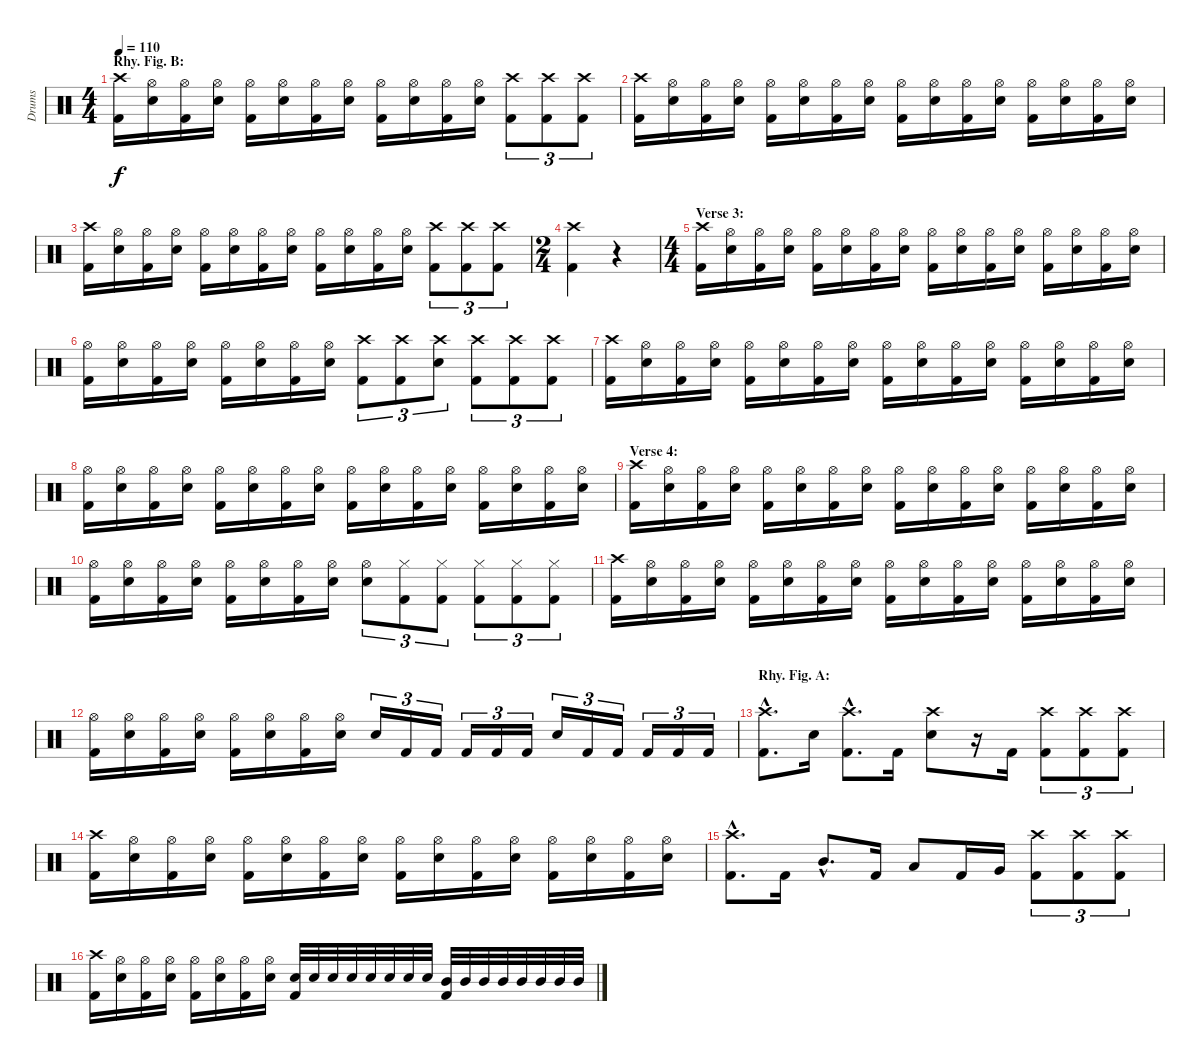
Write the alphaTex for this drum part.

\track ("Drums" "Drums") {instrument percussion}
\staff {score}
\articulation defaults
\ts (4 4)
\section ("" "Rhy. Fig. B:")
\tempo 110
\clef neutral
\ks c
("Crash high (hit)" "Kick (hit) 2").16{dy f} ("Hi-Hat (open)" "Electric Snare (hit)").16 ("Hi-Hat (open)" "Kick (hit) 2").16 ("Hi-Hat (open)" "Electric Snare (hit)").16 ("Hi-Hat (open)" "Kick (hit) 2").16 ("Hi-Hat (open)" "Electric Snare (hit)").16 ("Hi-Hat (open)" "Kick (hit) 2").16 ("Hi-Hat (open)" "Electric Snare (hit)").16 ("Hi-Hat (open)" "Kick (hit) 2").16 ("Hi-Hat (open)" "Electric Snare (hit)").16 ("Hi-Hat (open)" "Kick (hit) 2").16 ("Hi-Hat (open)" "Electric Snare (hit)").16 ("Crash high (hit)" "Kick (hit) 2").8{tu (3 2)} ("Crash high (hit)" "Kick (hit) 2").8{tu (3 2)} ("Crash high (hit)" "Kick (hit) 2").8{tu (3 2)} |
("Crash high (hit)" "Kick (hit) 2").16 ("Hi-Hat (open)" "Electric Snare (hit)").16 ("Hi-Hat (open)" "Kick (hit) 2").16 ("Hi-Hat (open)" "Electric Snare (hit)").16 ("Hi-Hat (open)" "Kick (hit) 2").16 ("Hi-Hat (open)" "Electric Snare (hit)").16 ("Hi-Hat (open)" "Kick (hit) 2").16 ("Hi-Hat (open)" "Electric Snare (hit)").16 ("Hi-Hat (open)" "Kick (hit) 2").16 ("Hi-Hat (open)" "Electric Snare (hit)").16 ("Hi-Hat (open)" "Kick (hit) 2").16 ("Hi-Hat (open)" "Electric Snare (hit)").16 ("Hi-Hat (open)" "Kick (hit) 2").16 ("Hi-Hat (open)" "Electric Snare (hit)").16 ("Hi-Hat (open)" "Kick (hit) 2").16 ("Hi-Hat (open)" "Electric Snare (hit)").16 |
("Crash high (hit)" "Kick (hit) 2").16 ("Hi-Hat (open)" "Electric Snare (hit)").16 ("Hi-Hat (open)" "Kick (hit) 2").16 ("Hi-Hat (open)" "Electric Snare (hit)").16 ("Hi-Hat (open)" "Kick (hit) 2").16 ("Hi-Hat (open)" "Electric Snare (hit)").16 ("Hi-Hat (open)" "Kick (hit) 2").16 ("Hi-Hat (open)" "Electric Snare (hit)").16 ("Hi-Hat (open)" "Kick (hit) 2").16 ("Hi-Hat (open)" "Electric Snare (hit)").16 ("Hi-Hat (open)" "Kick (hit) 2").16 ("Hi-Hat (open)" "Electric Snare (hit)").16 ("Crash high (hit)" "Kick (hit) 2").8{tu (3 2)} ("Crash high (hit)" "Kick (hit) 2").8{tu (3 2)} ("Crash high (hit)" "Kick (hit) 2").8{tu (3 2)} |
\ts (2 4)
("Crash high (hit)" "Kick (hit) 2").4 r.4 |
\ts (4 4)
\section ("" "Verse 3:")
("Crash high (hit)" "Kick (hit) 2").16 ("Hi-Hat (open)" "Electric Snare (hit)").16 ("Hi-Hat (open)" "Kick (hit) 2").16 ("Hi-Hat (open)" "Electric Snare (hit)").16 ("Hi-Hat (open)" "Kick (hit) 2").16 ("Hi-Hat (open)" "Electric Snare (hit)").16 ("Hi-Hat (open)" "Kick (hit) 2").16 ("Hi-Hat (open)" "Electric Snare (hit)").16 ("Hi-Hat (open)" "Kick (hit) 2").16 ("Hi-Hat (open)" "Electric Snare (hit)").16 ("Hi-Hat (open)" "Kick (hit) 2").16 ("Hi-Hat (open)" "Electric Snare (hit)").16 ("Hi-Hat (open)" "Kick (hit) 2").16 ("Hi-Hat (open)" "Electric Snare (hit)").16 ("Hi-Hat (open)" "Kick (hit) 2").16 ("Hi-Hat (open)" "Electric Snare (hit)").16 |
("Hi-Hat (open)" "Kick (hit) 2").16 ("Hi-Hat (open)" "Electric Snare (hit)").16 ("Hi-Hat (open)" "Kick (hit) 2").16 ("Hi-Hat (open)" "Electric Snare (hit)").16 ("Hi-Hat (open)" "Kick (hit) 2").16 ("Hi-Hat (open)" "Electric Snare (hit)").16 ("Hi-Hat (open)" "Kick (hit) 2").16 ("Hi-Hat (open)" "Electric Snare (hit)").16 ("Crash high (hit)" "Kick (hit) 2").8{tu (3 2)} ("Crash high (hit)" "Kick (hit) 2").8{tu (3 2)} ("Crash high (hit)" "Electric Snare (hit)").8{tu (3 2)} ("Crash high (hit)" "Kick (hit) 2").8{tu (3 2)} ("Crash high (hit)" "Kick (hit) 2").8{tu (3 2)} ("Crash high (hit)" "Kick (hit) 2").8{tu (3 2)} |
("Crash high (hit)" "Kick (hit) 2").16 ("Hi-Hat (open)" "Electric Snare (hit)").16 ("Hi-Hat (open)" "Kick (hit) 2").16 ("Hi-Hat (open)" "Electric Snare (hit)").16 ("Hi-Hat (open)" "Kick (hit) 2").16 ("Hi-Hat (open)" "Electric Snare (hit)").16 ("Hi-Hat (open)" "Kick (hit) 2").16 ("Hi-Hat (open)" "Electric Snare (hit)").16 ("Hi-Hat (open)" "Kick (hit) 2").16 ("Hi-Hat (open)" "Electric Snare (hit)").16 ("Hi-Hat (open)" "Kick (hit) 2").16 ("Hi-Hat (open)" "Electric Snare (hit)").16 ("Hi-Hat (open)" "Kick (hit) 2").16 ("Hi-Hat (open)" "Electric Snare (hit)").16 ("Hi-Hat (open)" "Kick (hit) 2").16 ("Hi-Hat (open)" "Electric Snare (hit)").16 |
("Hi-Hat (open)" "Kick (hit) 2").16 ("Hi-Hat (open)" "Electric Snare (hit)").16 ("Hi-Hat (open)" "Kick (hit) 2").16 ("Hi-Hat (open)" "Electric Snare (hit)").16 ("Hi-Hat (open)" "Kick (hit) 2").16 ("Hi-Hat (open)" "Electric Snare (hit)").16 ("Hi-Hat (open)" "Kick (hit) 2").16 ("Hi-Hat (open)" "Electric Snare (hit)").16 ("Hi-Hat (open)" "Kick (hit) 2").16 ("Hi-Hat (open)" "Electric Snare (hit)").16 ("Hi-Hat (open)" "Kick (hit) 2").16 ("Hi-Hat (open)" "Electric Snare (hit)").16 ("Hi-Hat (open)" "Kick (hit) 2").16 ("Hi-Hat (open)" "Electric Snare (hit)").16 ("Hi-Hat (open)" "Kick (hit) 2").16 ("Hi-Hat (open)" "Electric Snare (hit)").16 |
\section ("" "Verse 4:")
("Crash high (hit)" "Kick (hit) 2").16 ("Hi-Hat (open)" "Electric Snare (hit)").16 ("Hi-Hat (open)" "Kick (hit) 2").16 ("Hi-Hat (open)" "Electric Snare (hit)").16 ("Hi-Hat (open)" "Kick (hit) 2").16 ("Hi-Hat (open)" "Electric Snare (hit)").16 ("Hi-Hat (open)" "Kick (hit) 2").16 ("Hi-Hat (open)" "Electric Snare (hit)").16 ("Hi-Hat (open)" "Kick (hit) 2").16 ("Hi-Hat (open)" "Electric Snare (hit)").16 ("Hi-Hat (open)" "Kick (hit) 2").16 ("Hi-Hat (open)" "Electric Snare (hit)").16 ("Hi-Hat (open)" "Kick (hit) 2").16 ("Hi-Hat (open)" "Electric Snare (hit)").16 ("Hi-Hat (open)" "Kick (hit) 2").16 ("Hi-Hat (open)" "Electric Snare (hit)").16 |
("Hi-Hat (open)" "Kick (hit) 2").16 ("Hi-Hat (open)" "Electric Snare (hit)").16 ("Hi-Hat (open)" "Kick (hit) 2").16 ("Hi-Hat (open)" "Electric Snare (hit)").16 ("Hi-Hat (open)" "Kick (hit) 2").16 ("Hi-Hat (open)" "Electric Snare (hit)").16 ("Hi-Hat (open)" "Kick (hit) 2").16 ("Hi-Hat (open)" "Electric Snare (hit)").16 ("Hi-Hat (open)" "Electric Snare (hit)").8{tu (3 2)} ("Hi-Hat (closed)" "Kick (hit) 2").8{tu (3 2)} ("Hi-Hat (closed)" "Kick (hit) 2").8{tu (3 2)} ("Hi-Hat (closed)" "Kick (hit) 2").8{tu (3 2)} ("Hi-Hat (closed)" "Kick (hit) 2").8{tu (3 2)} ("Hi-Hat (closed)" "Kick (hit) 2").8{tu (3 2)} |
("Crash high (hit)" "Kick (hit) 2").16 ("Hi-Hat (open)" "Electric Snare (hit)").16 ("Hi-Hat (open)" "Kick (hit) 2").16 ("Hi-Hat (open)" "Electric Snare (hit)").16 ("Hi-Hat (open)" "Kick (hit) 2").16 ("Hi-Hat (open)" "Electric Snare (hit)").16 ("Hi-Hat (open)" "Kick (hit) 2").16 ("Hi-Hat (open)" "Electric Snare (hit)").16 ("Hi-Hat (open)" "Kick (hit) 2").16 ("Hi-Hat (open)" "Electric Snare (hit)").16 ("Hi-Hat (open)" "Kick (hit) 2").16 ("Hi-Hat (open)" "Electric Snare (hit)").16 ("Hi-Hat (open)" "Kick (hit) 2").16 ("Hi-Hat (open)" "Electric Snare (hit)").16 ("Hi-Hat (open)" "Kick (hit) 2").16 ("Hi-Hat (open)" "Electric Snare (hit)").16 |
("Hi-Hat (open)" "Kick (hit) 2").16 ("Hi-Hat (open)" "Electric Snare (hit)").16 ("Hi-Hat (open)" "Kick (hit) 2").16 ("Hi-Hat (open)" "Electric Snare (hit)").16 ("Hi-Hat (open)" "Kick (hit) 2").16 ("Hi-Hat (open)" "Electric Snare (hit)").16 ("Hi-Hat (open)" "Kick (hit) 2").16 ("Hi-Hat (open)" "Electric Snare (hit)").16 "Electric Snare (hit)".16{tu (3 2)} "Kick (hit) 2".16{tu (3 2)} "Kick (hit) 2".16{tu (3 2)} "Kick (hit) 2".16{tu (3 2)} "Kick (hit) 2".16{tu (3 2)} "Kick (hit) 2".16{tu (3 2)} "Electric Snare (hit)".16{tu (3 2)} "Kick (hit) 2".16{tu (3 2)} "Kick (hit) 2".16{tu (3 2)} "Kick (hit) 2".16{tu (3 2)} "Kick (hit) 2".16{tu (3 2)} "Kick (hit) 2".16{tu (3 2)} |
\section ("" "Rhy. Fig. A:")
("Crash high (hit)"{hac} "Kick (hit) 2"{hac}).8{d} "Electric Snare (hit)".16 ("Crash high (hit)"{hac} "Kick (hit) 2"{hac}).8{d} "Kick (hit) 2".16 ("Crash high (hit)" "Electric Snare (hit)").8 r.16 "Kick (hit) 2".16 ("Crash high (hit)" "Kick (hit) 2").8{tu (3 2)} ("Crash high (hit)" "Kick (hit) 2").8{tu (3 2)} ("Crash high (hit)" "Kick (hit) 2").8{tu (3 2)} |
("Crash high (hit)" "Kick (hit) 2").16 ("Hi-Hat (open)" "Electric Snare (hit)").16 ("Hi-Hat (open)" "Kick (hit) 2").16 ("Hi-Hat (open)" "Electric Snare (hit)").16 ("Hi-Hat (open)" "Kick (hit) 2").16 ("Hi-Hat (open)" "Electric Snare (hit)").16 ("Hi-Hat (open)" "Kick (hit) 2").16 ("Hi-Hat (open)" "Electric Snare (hit)").16 ("Hi-Hat (open)" "Kick (hit) 2").16 ("Hi-Hat (open)" "Electric Snare (hit)").16 ("Hi-Hat (open)" "Kick (hit) 2").16 ("Hi-Hat (open)" "Electric Snare (hit)").16 ("Hi-Hat (open)" "Kick (hit) 2").16 ("Hi-Hat (open)" "Electric Snare (hit)").16 ("Hi-Hat (open)" "Kick (hit) 2").16 ("Hi-Hat (open)" "Electric Snare (hit)").16 |
("Crash high (hit)"{hac} "Kick (hit) 2"{hac}).8{d} "Kick (hit) 2".16 "Mid Tom (hit)"{hac}.8{d} "Kick (hit) 2".16 "Low Tom (hit)".8 "Kick (hit) 2".16 "Very Low Tom (hit)".16 ("Crash high (hit)" "Kick (hit) 2").8{tu (3 2)} ("Crash high (hit)" "Kick (hit) 2").8{tu (3 2)} ("Crash high (hit)" "Kick (hit) 2").8{tu (3 2)} |
("Crash high (hit)" "Kick (hit) 2").16 ("Hi-Hat (open)" "Electric Snare (hit)").16 ("Hi-Hat (open)" "Kick (hit) 2").16 ("Hi-Hat (open)" "Electric Snare (hit)").16 ("Hi-Hat (open)" "Kick (hit) 2").16 ("Hi-Hat (open)" "Electric Snare (hit)").16 ("Hi-Hat (open)" "Kick (hit) 2").16 ("Hi-Hat (open)" "Electric Snare (hit)").16 ("Electric Snare (hit)" "Kick (hit) 2").32 "Electric Snare (hit)".32 "Electric Snare (hit)".32 "Electric Snare (hit)".32 "Electric Snare (hit)".32 "Electric Snare (hit)".32 "Electric Snare (hit)".32 "Electric Snare (hit)".32 ("Mid Tom (hit)" "Kick (hit) 2").32 "Mid Tom (hit)".32 "Mid Tom (hit)".32 "Mid Tom (hit)".32 "Mid Tom (hit)".32 "Mid Tom (hit)".32 "Mid Tom (hit)".32 "Mid Tom (hit)".32
